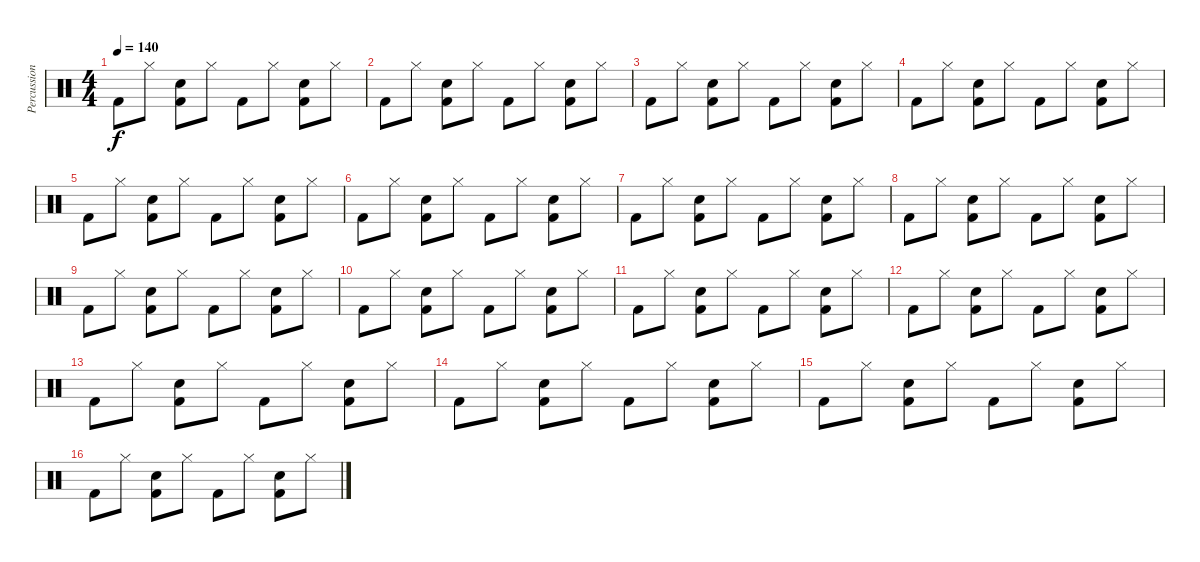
\track ("Percussion" "Percussion") {instrument percussion}
\staff {score}
\articulation defaults
\ts (4 4)
\tempo 140
\clef neutral
\ks c "Kick (hit) 2".8{dy f} "Hi-Hat (closed)".8
("Electric Snare (hit)" "Kick (hit) 2").8 "Hi-Hat (closed)".8 "Kick (hit) 2".8 "Hi-Hat (closed)".8 ("Electric Snare (hit)" "Kick (hit) 2").8 "Hi-Hat (closed)".8 |
"Kick (hit) 2".8 "Hi-Hat (closed)".8 ("Electric Snare (hit)" "Kick (hit) 2").8 "Hi-Hat (closed)".8 "Kick (hit) 2".8 "Hi-Hat (closed)".8 ("Electric Snare (hit)" "Kick (hit) 2").8 "Hi-Hat (closed)".8 |
"Kick (hit) 2".8 "Hi-Hat (closed)".8 ("Electric Snare (hit)" "Kick (hit) 2").8 "Hi-Hat (closed)".8 "Kick (hit) 2".8 "Hi-Hat (closed)".8 ("Electric Snare (hit)" "Kick (hit) 2").8 "Hi-Hat (closed)".8 |
"Kick (hit) 2".8 "Hi-Hat (closed)".8 ("Electric Snare (hit)" "Kick (hit) 2").8 "Hi-Hat (closed)".8 "Kick (hit) 2".8 "Hi-Hat (closed)".8 ("Electric Snare (hit)" "Kick (hit) 2").8 "Hi-Hat (closed)".8 |
"Kick (hit) 2".8 "Hi-Hat (closed)".8 ("Electric Snare (hit)" "Kick (hit) 2").8 "Hi-Hat (closed)".8 "Kick (hit) 2".8 "Hi-Hat (closed)".8 ("Electric Snare (hit)" "Kick (hit) 2").8 "Hi-Hat (closed)".8 |
"Kick (hit) 2".8 "Hi-Hat (closed)".8 ("Electric Snare (hit)" "Kick (hit) 2").8 "Hi-Hat (closed)".8 "Kick (hit) 2".8 "Hi-Hat (closed)".8 ("Electric Snare (hit)" "Kick (hit) 2").8 "Hi-Hat (closed)".8 |
"Kick (hit) 2".8 "Hi-Hat (closed)".8 ("Electric Snare (hit)" "Kick (hit) 2").8 "Hi-Hat (closed)".8 "Kick (hit) 2".8 "Hi-Hat (closed)".8 ("Electric Snare (hit)" "Kick (hit) 2").8 "Hi-Hat (closed)".8 |
"Kick (hit) 2".8 "Hi-Hat (closed)".8 ("Electric Snare (hit)" "Kick (hit) 2").8 "Hi-Hat (closed)".8 "Kick (hit) 2".8 "Hi-Hat (closed)".8 ("Electric Snare (hit)" "Kick (hit) 2").8 "Hi-Hat (closed)".8 |
"Kick (hit) 2".8 "Hi-Hat (closed)".8 ("Electric Snare (hit)" "Kick (hit) 2").8 "Hi-Hat (closed)".8 "Kick (hit) 2".8 "Hi-Hat (closed)".8 ("Electric Snare (hit)" "Kick (hit) 2").8 "Hi-Hat (closed)".8 |
"Kick (hit) 2".8 "Hi-Hat (closed)".8 ("Electric Snare (hit)" "Kick (hit) 2").8 "Hi-Hat (closed)".8 "Kick (hit) 2".8 "Hi-Hat (closed)".8 ("Electric Snare (hit)" "Kick (hit) 2").8 "Hi-Hat (closed)".8 |
"Kick (hit) 2".8 "Hi-Hat (closed)".8 ("Electric Snare (hit)" "Kick (hit) 2").8 "Hi-Hat (closed)".8 "Kick (hit) 2".8 "Hi-Hat (closed)".8 ("Electric Snare (hit)" "Kick (hit) 2").8 "Hi-Hat (closed)".8 |
"Kick (hit) 2".8 "Hi-Hat (closed)".8 ("Electric Snare (hit)" "Kick (hit) 2").8 "Hi-Hat (closed)".8 "Kick (hit) 2".8 "Hi-Hat (closed)".8 ("Electric Snare (hit)" "Kick (hit) 2").8 "Hi-Hat (closed)".8 |
"Kick (hit) 2".8 "Hi-Hat (closed)".8 ("Electric Snare (hit)" "Kick (hit) 2").8 "Hi-Hat (closed)".8 "Kick (hit) 2".8 "Hi-Hat (closed)".8 ("Electric Snare (hit)" "Kick (hit) 2").8 "Hi-Hat (closed)".8 |
"Kick (hit) 2".8 "Hi-Hat (closed)".8 ("Electric Snare (hit)" "Kick (hit) 2").8 "Hi-Hat (closed)".8 "Kick (hit) 2".8 "Hi-Hat (closed)".8 ("Electric Snare (hit)" "Kick (hit) 2").8 "Hi-Hat (closed)".8 |
"Kick (hit) 2".8 "Hi-Hat (closed)".8 ("Electric Snare (hit)" "Kick (hit) 2").8 "Hi-Hat (closed)".8 "Kick (hit) 2".8 "Hi-Hat (closed)".8 ("Electric Snare (hit)" "Kick (hit) 2").8 "Hi-Hat (closed)".8 |
"Kick (hit) 2".8 "Hi-Hat (closed)".8 ("Electric Snare (hit)" "Kick (hit) 2").8 "Hi-Hat (closed)".8 "Kick (hit) 2".8 "Hi-Hat (closed)".8 ("Electric Snare (hit)" "Kick (hit) 2").8 "Hi-Hat (closed)".8
